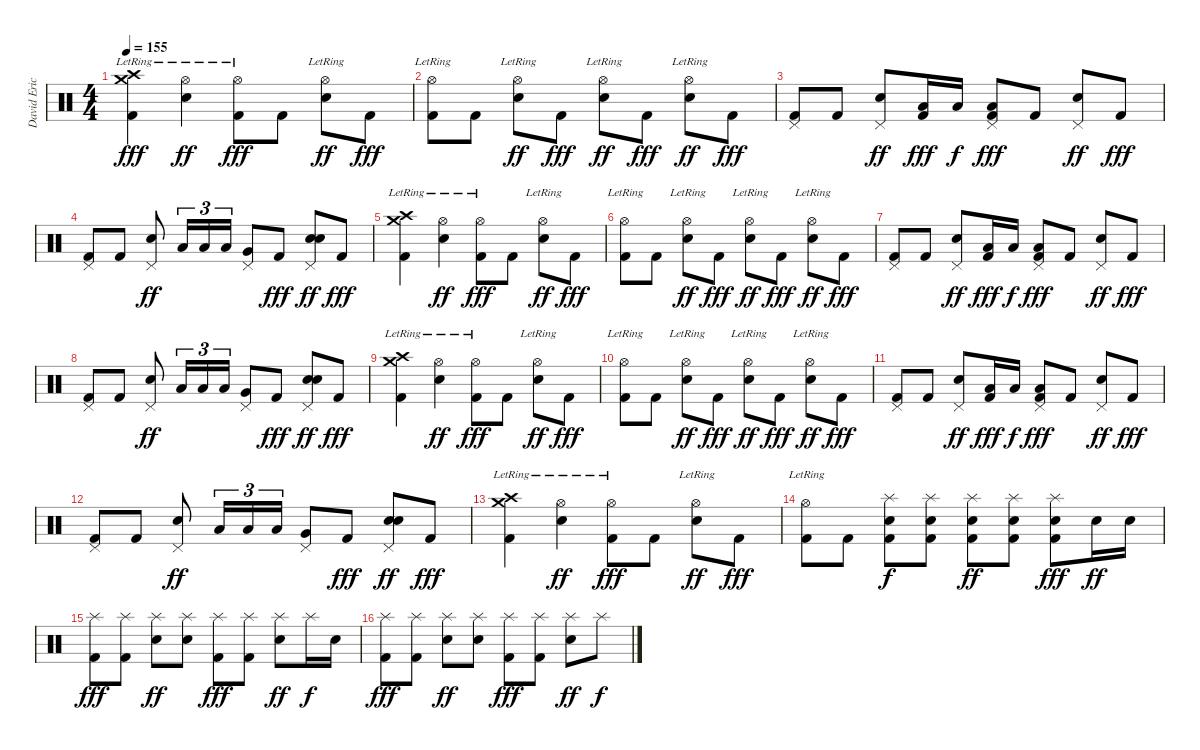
\track ("David Eric Grohl" "David Eric") {instrument percussion}
\staff {score}
\articulation defaults
\ts (4 4)
\tempo 155
\clef neutral
\ks c
("Crash medium (hit)"{lr} "Crash high (hit)"{lr} "Kick (hit) 2").4{dy fff} ("Hi-Hat (open)"{lr} "Electric Snare (hit)").4{dy ff} ("Hi-Hat (open)"{lr} "Kick (hit) 2").8{dy fff} "Kick (hit) 2".8 ("Hi-Hat (open)"{lr} "Electric Snare (hit)").8{dy ff} "Kick (hit) 2".8{dy fff} |
("Hi-Hat (open)"{lr} "Kick (hit) 2").8 "Kick (hit) 2".8 ("Hi-Hat (open)"{lr} "Electric Snare (hit)").8{dy ff} "Kick (hit) 2".8{dy fff} ("Hi-Hat (open)"{lr} "Electric Snare (hit)").8{dy ff} "Kick (hit) 2".8{dy fff} ("Hi-Hat (open)"{lr} "Electric Snare (hit)").8{dy ff} "Kick (hit) 2".8{dy fff} |
("Pedal Hi-Hat (hit)" "Kick (hit) 2").8 "Kick (hit) 2".8 ("Pedal Hi-Hat (hit)" "Electric Snare (hit)").8{dy ff} ("Low Tom (hit)" "Kick (hit) 2").16{dy fff} "Low Tom (hit)".16{dy f} ("Pedal Hi-Hat (hit)" "Low Tom (hit)" "Kick (hit) 2").8{dy fff} "Kick (hit) 2".8 ("Pedal Hi-Hat (hit)" "Electric Snare (hit)").8{dy ff} "Kick (hit) 2".8{dy fff} |
("Pedal Hi-Hat (hit)" "Kick (hit) 2").8 "Kick (hit) 2".8 ("Pedal Hi-Hat (hit)" "Electric Snare (hit)").8{dy ff} "Low Tom (hit)".16{tu (3 2)} "Low Tom (hit)".16{tu (3 2)} "Low Tom (hit)".16{tu (3 2)} ("Pedal Hi-Hat (hit)" "Very Low Tom (hit)").8 "Kick (hit) 2".8{dy fff} ("Pedal Hi-Hat (hit)" "Electric Snare (hit)" "Electric Snare (hit)").8{dy ff} "Kick (hit) 2".8{dy fff} |
("Crash medium (hit)"{lr} "Crash high (hit)"{lr} "Kick (hit) 2").4 ("Hi-Hat (open)"{lr} "Electric Snare (hit)").4{dy ff} ("Hi-Hat (open)"{lr} "Kick (hit) 2").8{dy fff} "Kick (hit) 2".8 ("Hi-Hat (open)"{lr} "Electric Snare (hit)").8{dy ff} "Kick (hit) 2".8{dy fff} |
("Hi-Hat (open)"{lr} "Kick (hit) 2").8 "Kick (hit) 2".8 ("Hi-Hat (open)"{lr} "Electric Snare (hit)").8{dy ff} "Kick (hit) 2".8{dy fff} ("Hi-Hat (open)"{lr} "Electric Snare (hit)").8{dy ff} "Kick (hit) 2".8{dy fff} ("Hi-Hat (open)"{lr} "Electric Snare (hit)").8{dy ff} "Kick (hit) 2".8{dy fff} |
("Pedal Hi-Hat (hit)" "Kick (hit) 2").8 "Kick (hit) 2".8 ("Pedal Hi-Hat (hit)" "Electric Snare (hit)").8{dy ff} ("Low Tom (hit)" "Kick (hit) 2").16{dy fff} "Low Tom (hit)".16{dy f} ("Pedal Hi-Hat (hit)" "Low Tom (hit)" "Kick (hit) 2").8{dy fff} "Kick (hit) 2".8 ("Pedal Hi-Hat (hit)" "Electric Snare (hit)").8{dy ff} "Kick (hit) 2".8{dy fff} |
("Pedal Hi-Hat (hit)" "Kick (hit) 2").8 "Kick (hit) 2".8 ("Pedal Hi-Hat (hit)" "Electric Snare (hit)").8{dy ff} "Low Tom (hit)".16{tu (3 2)} "Low Tom (hit)".16{tu (3 2)} "Low Tom (hit)".16{tu (3 2)} ("Pedal Hi-Hat (hit)" "Very Low Tom (hit)").8 "Kick (hit) 2".8{dy fff} ("Pedal Hi-Hat (hit)" "Electric Snare (hit)" "Electric Snare (hit)").8{dy ff} "Kick (hit) 2".8{dy fff} |
("Crash medium (hit)"{lr} "Crash high (hit)"{lr} "Kick (hit) 2").4 ("Hi-Hat (open)"{lr} "Electric Snare (hit)").4{dy ff} ("Hi-Hat (open)"{lr} "Kick (hit) 2").8{dy fff} "Kick (hit) 2".8 ("Hi-Hat (open)"{lr} "Electric Snare (hit)").8{dy ff} "Kick (hit) 2".8{dy fff} |
("Hi-Hat (open)"{lr} "Kick (hit) 2").8 "Kick (hit) 2".8 ("Hi-Hat (open)"{lr} "Electric Snare (hit)").8{dy ff} "Kick (hit) 2".8{dy fff} ("Hi-Hat (open)"{lr} "Electric Snare (hit)").8{dy ff} "Kick (hit) 2".8{dy fff} ("Hi-Hat (open)"{lr} "Electric Snare (hit)").8{dy ff} "Kick (hit) 2".8{dy fff} |
("Pedal Hi-Hat (hit)" "Kick (hit) 2").8 "Kick (hit) 2".8 ("Pedal Hi-Hat (hit)" "Electric Snare (hit)").8{dy ff} ("Low Tom (hit)" "Kick (hit) 2").16{dy fff} "Low Tom (hit)".16{dy f} ("Pedal Hi-Hat (hit)" "Low Tom (hit)" "Kick (hit) 2").8{dy fff} "Kick (hit) 2".8 ("Pedal Hi-Hat (hit)" "Electric Snare (hit)").8{dy ff} "Kick (hit) 2".8{dy fff} |
("Pedal Hi-Hat (hit)" "Kick (hit) 2").8 "Kick (hit) 2".8 ("Pedal Hi-Hat (hit)" "Electric Snare (hit)").8{dy ff} "Low Tom (hit)".16{tu (3 2)} "Low Tom (hit)".16{tu (3 2)} "Low Tom (hit)".16{tu (3 2)} ("Pedal Hi-Hat (hit)" "Very Low Tom (hit)").8 "Kick (hit) 2".8{dy fff} ("Pedal Hi-Hat (hit)" "Electric Snare (hit)" "Electric Snare (hit)").8{dy ff} "Kick (hit) 2".8{dy fff} |
("Crash medium (hit)"{lr} "Crash high (hit)"{lr} "Kick (hit) 2").4 ("Hi-Hat (open)"{lr} "Electric Snare (hit)").4{dy ff} ("Hi-Hat (open)"{lr} "Kick (hit) 2").8{dy fff} "Kick (hit) 2".8 ("Hi-Hat (open)"{lr} "Electric Snare (hit)").8{dy ff} "Kick (hit) 2".8{dy fff} |
("Hi-Hat (open)"{lr} "Kick (hit) 2").8 "Kick (hit) 2".8 ("Splash (hit)" "Electric Snare (hit)" "Kick (hit) 2").8{dy f} ("Splash (hit)" "Electric Snare (hit)" "Kick (hit) 2").8 ("Splash (hit)" "Electric Snare (hit)" "Kick (hit) 2").8{dy ff} ("Splash (hit)" "Electric Snare (hit)" "Kick (hit) 2").8 ("Splash (hit)" "Electric Snare (hit)" "Kick (hit) 2").8{dy fff} "Electric Snare (hit)".16{dy ff} "Electric Snare (hit)".16 |
("Splash (hit)" "Kick (hit) 2").8{dy fff} ("Splash (hit)" "Kick (hit) 2").8 ("Splash (hit)" "Electric Snare (hit)").8{dy ff} ("Splash (hit)" "Electric Snare (hit)").8 ("Splash (hit)" "Kick (hit) 2").8{dy fff} ("Splash (hit)" "Kick (hit) 2").8 ("Splash (hit)" "Electric Snare (hit)").8{dy ff} "Splash (hit)".16{dy f} "Electric Snare (hit)".16 |
("Splash (hit)" "Kick (hit) 2").8{dy fff} ("Splash (hit)" "Kick (hit) 2").8 ("Splash (hit)" "Electric Snare (hit)").8{dy ff} ("Splash (hit)" "Electric Snare (hit)").8 ("Splash (hit)" "Kick (hit) 2").8{dy fff} ("Splash (hit)" "Kick (hit) 2").8 ("Splash (hit)" "Electric Snare (hit)").8{dy ff} "Splash (hit)".8{dy f}
